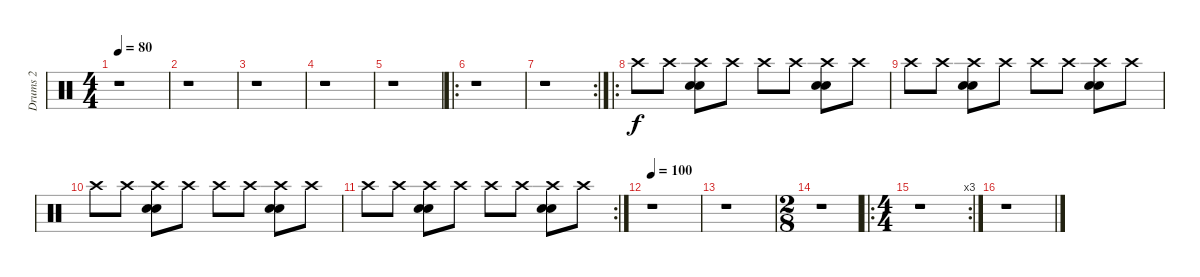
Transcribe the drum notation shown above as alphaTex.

\track ("Drums 2" "Drums 2") {instrument percussion}
\staff {score}
\articulation defaults
\ts (4 4)
\tempo 80
\clef neutral
\ks c
r.1{dy f} |
r.1 |
r.1 |
r.1 |
r.1 |
\ro
r.1 |
\rc 2
r.1 |
\ro "Crash high (hit)".8 "Crash high (hit)".8
("Crash high (hit)" "Electric Snare (hit)" "Electric Snare (hit)").8 "Crash high (hit)".8 "Crash high (hit)".8 "Crash high (hit)".8 ("Crash high (hit)" "Electric Snare (hit)" "Electric Snare (hit)").8 "Crash high (hit)".8 |
"Crash high (hit)".8 "Crash high (hit)".8 ("Crash high (hit)" "Electric Snare (hit)" "Electric Snare (hit)").8 "Crash high (hit)".8 "Crash high (hit)".8 "Crash high (hit)".8 ("Crash high (hit)" "Electric Snare (hit)" "Electric Snare (hit)").8 "Crash high (hit)".8 |
"Crash high (hit)".8 "Crash high (hit)".8 ("Crash high (hit)" "Electric Snare (hit)" "Electric Snare (hit)").8 "Crash high (hit)".8 "Crash high (hit)".8 "Crash high (hit)".8 ("Crash high (hit)" "Electric Snare (hit)" "Electric Snare (hit)").8 "Crash high (hit)".8 |
\rc 2 "Crash high (hit)".8 "Crash high (hit)".8
("Crash high (hit)" "Electric Snare (hit)" "Electric Snare (hit)").8 "Crash high (hit)".8 "Crash high (hit)".8 "Crash high (hit)".8 ("Crash high (hit)" "Electric Snare (hit)" "Electric Snare (hit)").8 "Crash high (hit)".8 |
\tempo 100
r.1 |
r.1 |
\ts (2 8)
r.1 |
\ro
\rc 3
\ts (4 4)
r.1 |
r.1
